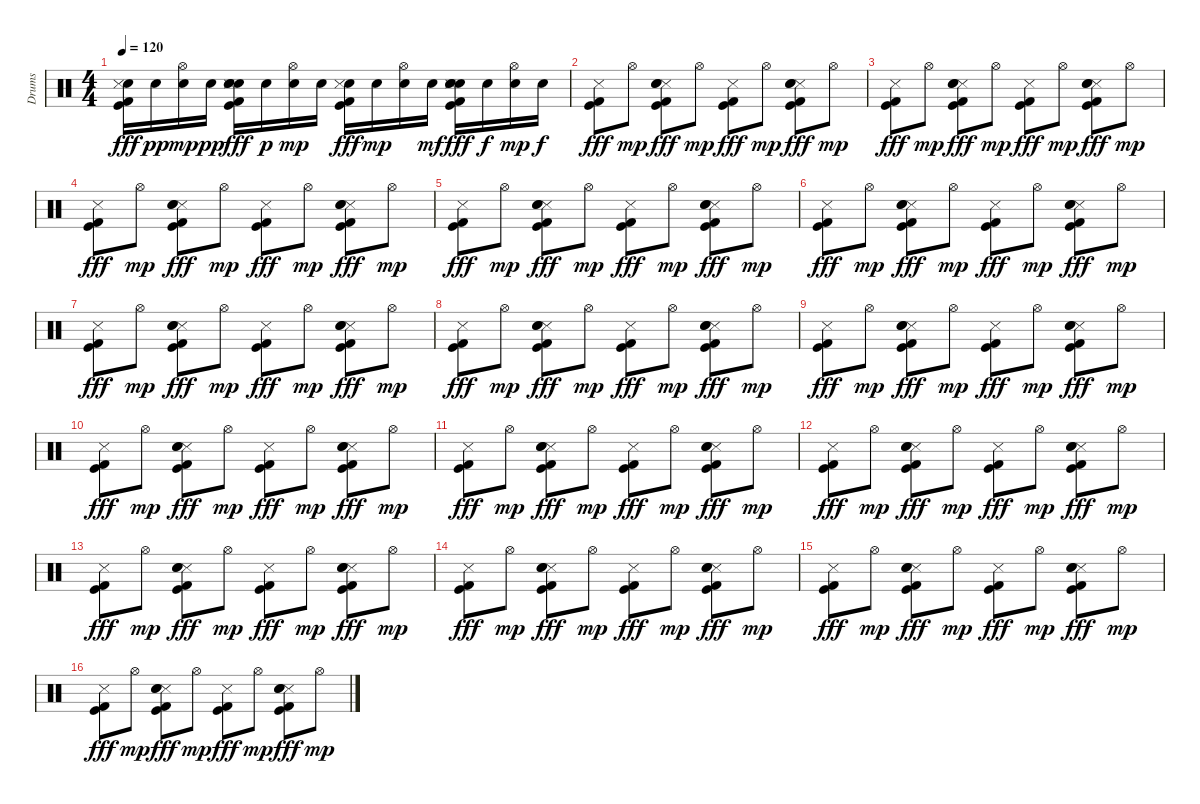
\track ("Drums" "Drums") {instrument percussion}
\staff {score}
\articulation defaults
\ts (4 4)
\tempo 120
\clef neutral
\ks c
("Snare (hit)" "Metronome (hit)" "Kick (hit)" "Kick (hit) 2").16{dy fff} "Snare (hit)".16{dy pp} ("Snare (hit)" "Hi-Hat (open)").16{dy mp} "Snare (hit)".16{dy pp} ("Snare (hit)" "Metronome (hit)" "Kick (hit)" "Kick (hit) 2" "Snare (hit) 2" "Electric Snare (hit)").16{dy fff} "Snare (hit)".16{dy p} ("Snare (hit)" "Hi-Hat (open)").16{dy mp} "Snare (hit)".16 ("Snare (hit)" "Metronome (hit)" "Kick (hit)" "Kick (hit) 2").16{dy fff} "Snare (hit)".16{dy mp} ("Snare (hit)" "Hi-Hat (open)").16 "Snare (hit)".16{dy mf} ("Snare (hit)" "Metronome (hit)" "Kick (hit)" "Kick (hit) 2" "Snare (hit) 2" "Electric Snare (hit)").16{dy fff} "Snare (hit)".16{dy f} ("Snare (hit)" "Hi-Hat (open)").16{dy mp} "Snare (hit)".16{dy f} |
("Metronome (hit)" "Kick (hit)" "Kick (hit) 2").8{dy fff} "Hi-Hat (open)".8{dy mp} ("Metronome (hit)" "Kick (hit)" "Kick (hit) 2" "Snare (hit) 2" "Electric Snare (hit)").8{dy fff} "Hi-Hat (open)".8{dy mp} ("Metronome (hit)" "Kick (hit)" "Kick (hit) 2").8{dy fff} "Hi-Hat (open)".8{dy mp} ("Metronome (hit)" "Kick (hit)" "Kick (hit) 2" "Snare (hit) 2" "Electric Snare (hit)").8{dy fff} "Hi-Hat (open)".8{dy mp} |
("Metronome (hit)" "Kick (hit)" "Kick (hit) 2").8{dy fff} "Hi-Hat (open)".8{dy mp} ("Metronome (hit)" "Kick (hit)" "Kick (hit) 2" "Snare (hit) 2" "Electric Snare (hit)").8{dy fff} "Hi-Hat (open)".8{dy mp} ("Metronome (hit)" "Kick (hit)" "Kick (hit) 2").8{dy fff} "Hi-Hat (open)".8{dy mp} ("Metronome (hit)" "Kick (hit)" "Kick (hit) 2" "Snare (hit) 2" "Electric Snare (hit)").8{dy fff} "Hi-Hat (open)".8{dy mp} |
("Metronome (hit)" "Kick (hit)" "Kick (hit) 2").8{dy fff} "Hi-Hat (open)".8{dy mp} ("Metronome (hit)" "Kick (hit)" "Kick (hit) 2" "Snare (hit) 2" "Electric Snare (hit)").8{dy fff} "Hi-Hat (open)".8{dy mp} ("Metronome (hit)" "Kick (hit)" "Kick (hit) 2").8{dy fff} "Hi-Hat (open)".8{dy mp} ("Metronome (hit)" "Kick (hit)" "Kick (hit) 2" "Snare (hit) 2" "Electric Snare (hit)").8{dy fff} "Hi-Hat (open)".8{dy mp} |
("Metronome (hit)" "Kick (hit)" "Kick (hit) 2").8{dy fff} "Hi-Hat (open)".8{dy mp} ("Metronome (hit)" "Kick (hit)" "Kick (hit) 2" "Snare (hit) 2" "Electric Snare (hit)").8{dy fff} "Hi-Hat (open)".8{dy mp} ("Metronome (hit)" "Kick (hit)" "Kick (hit) 2").8{dy fff} "Hi-Hat (open)".8{dy mp} ("Metronome (hit)" "Kick (hit)" "Kick (hit) 2" "Snare (hit) 2" "Electric Snare (hit)").8{dy fff} "Hi-Hat (open)".8{dy mp} |
("Metronome (hit)" "Kick (hit)" "Kick (hit) 2").8{dy fff} "Hi-Hat (open)".8{dy mp} ("Metronome (hit)" "Kick (hit)" "Kick (hit) 2" "Snare (hit) 2" "Electric Snare (hit)").8{dy fff} "Hi-Hat (open)".8{dy mp} ("Metronome (hit)" "Kick (hit)" "Kick (hit) 2").8{dy fff} "Hi-Hat (open)".8{dy mp} ("Metronome (hit)" "Kick (hit)" "Kick (hit) 2" "Snare (hit) 2" "Electric Snare (hit)").8{dy fff} "Hi-Hat (open)".8{dy mp} |
("Metronome (hit)" "Kick (hit)" "Kick (hit) 2").8{dy fff} "Hi-Hat (open)".8{dy mp} ("Metronome (hit)" "Kick (hit)" "Kick (hit) 2" "Snare (hit) 2" "Electric Snare (hit)").8{dy fff} "Hi-Hat (open)".8{dy mp} ("Metronome (hit)" "Kick (hit)" "Kick (hit) 2").8{dy fff} "Hi-Hat (open)".8{dy mp} ("Metronome (hit)" "Kick (hit)" "Kick (hit) 2" "Snare (hit) 2" "Electric Snare (hit)").8{dy fff} "Hi-Hat (open)".8{dy mp} |
("Metronome (hit)" "Kick (hit)" "Kick (hit) 2").8{dy fff} "Hi-Hat (open)".8{dy mp} ("Metronome (hit)" "Kick (hit)" "Kick (hit) 2" "Snare (hit) 2" "Electric Snare (hit)").8{dy fff} "Hi-Hat (open)".8{dy mp} ("Metronome (hit)" "Kick (hit)" "Kick (hit) 2").8{dy fff} "Hi-Hat (open)".8{dy mp} ("Metronome (hit)" "Kick (hit)" "Kick (hit) 2" "Snare (hit) 2" "Electric Snare (hit)").8{dy fff} "Hi-Hat (open)".8{dy mp} |
("Metronome (hit)" "Kick (hit)" "Kick (hit) 2").8{dy fff} "Hi-Hat (open)".8{dy mp} ("Metronome (hit)" "Kick (hit)" "Kick (hit) 2" "Snare (hit) 2" "Electric Snare (hit)").8{dy fff} "Hi-Hat (open)".8{dy mp} ("Metronome (hit)" "Kick (hit)" "Kick (hit) 2").8{dy fff} "Hi-Hat (open)".8{dy mp} ("Metronome (hit)" "Kick (hit)" "Kick (hit) 2" "Snare (hit) 2" "Electric Snare (hit)").8{dy fff} "Hi-Hat (open)".8{dy mp} |
("Metronome (hit)" "Kick (hit)" "Kick (hit) 2").8{dy fff} "Hi-Hat (open)".8{dy mp} ("Metronome (hit)" "Kick (hit)" "Kick (hit) 2" "Snare (hit) 2" "Electric Snare (hit)").8{dy fff} "Hi-Hat (open)".8{dy mp} ("Metronome (hit)" "Kick (hit)" "Kick (hit) 2").8{dy fff} "Hi-Hat (open)".8{dy mp} ("Metronome (hit)" "Kick (hit)" "Kick (hit) 2" "Snare (hit) 2" "Electric Snare (hit)").8{dy fff} "Hi-Hat (open)".8{dy mp} |
("Metronome (hit)" "Kick (hit)" "Kick (hit) 2").8{dy fff} "Hi-Hat (open)".8{dy mp} ("Metronome (hit)" "Kick (hit)" "Kick (hit) 2" "Snare (hit) 2" "Electric Snare (hit)").8{dy fff} "Hi-Hat (open)".8{dy mp} ("Metronome (hit)" "Kick (hit)" "Kick (hit) 2").8{dy fff} "Hi-Hat (open)".8{dy mp} ("Metronome (hit)" "Kick (hit)" "Kick (hit) 2" "Snare (hit) 2" "Electric Snare (hit)").8{dy fff} "Hi-Hat (open)".8{dy mp} |
("Metronome (hit)" "Kick (hit)" "Kick (hit) 2").8{dy fff} "Hi-Hat (open)".8{dy mp} ("Metronome (hit)" "Kick (hit)" "Kick (hit) 2" "Snare (hit) 2" "Electric Snare (hit)").8{dy fff} "Hi-Hat (open)".8{dy mp} ("Metronome (hit)" "Kick (hit)" "Kick (hit) 2").8{dy fff} "Hi-Hat (open)".8{dy mp} ("Metronome (hit)" "Kick (hit)" "Kick (hit) 2" "Snare (hit) 2" "Electric Snare (hit)").8{dy fff} "Hi-Hat (open)".8{dy mp} |
("Metronome (hit)" "Kick (hit)" "Kick (hit) 2").8{dy fff} "Hi-Hat (open)".8{dy mp} ("Metronome (hit)" "Kick (hit)" "Kick (hit) 2" "Snare (hit) 2" "Electric Snare (hit)").8{dy fff} "Hi-Hat (open)".8{dy mp} ("Metronome (hit)" "Kick (hit)" "Kick (hit) 2").8{dy fff} "Hi-Hat (open)".8{dy mp} ("Metronome (hit)" "Kick (hit)" "Kick (hit) 2" "Snare (hit) 2" "Electric Snare (hit)").8{dy fff} "Hi-Hat (open)".8{dy mp} |
("Metronome (hit)" "Kick (hit)" "Kick (hit) 2").8{dy fff} "Hi-Hat (open)".8{dy mp} ("Metronome (hit)" "Kick (hit)" "Kick (hit) 2" "Snare (hit) 2" "Electric Snare (hit)").8{dy fff} "Hi-Hat (open)".8{dy mp} ("Metronome (hit)" "Kick (hit)" "Kick (hit) 2").8{dy fff} "Hi-Hat (open)".8{dy mp} ("Metronome (hit)" "Kick (hit)" "Kick (hit) 2" "Snare (hit) 2" "Electric Snare (hit)").8{dy fff} "Hi-Hat (open)".8{dy mp} |
("Metronome (hit)" "Kick (hit)" "Kick (hit) 2").8{dy fff} "Hi-Hat (open)".8{dy mp} ("Metronome (hit)" "Kick (hit)" "Kick (hit) 2" "Snare (hit) 2" "Electric Snare (hit)").8{dy fff} "Hi-Hat (open)".8{dy mp} ("Metronome (hit)" "Kick (hit)" "Kick (hit) 2").8{dy fff} "Hi-Hat (open)".8{dy mp} ("Metronome (hit)" "Kick (hit)" "Kick (hit) 2" "Snare (hit) 2" "Electric Snare (hit)").8{dy fff} "Hi-Hat (open)".8{dy mp} |
("Metronome (hit)" "Kick (hit)" "Kick (hit) 2").8{dy fff} "Hi-Hat (open)".8{dy mp} ("Metronome (hit)" "Kick (hit)" "Kick (hit) 2" "Snare (hit) 2" "Electric Snare (hit)").8{dy fff} "Hi-Hat (open)".8{dy mp} ("Metronome (hit)" "Kick (hit)" "Kick (hit) 2").8{dy fff} "Hi-Hat (open)".8{dy mp} ("Metronome (hit)" "Kick (hit)" "Kick (hit) 2" "Snare (hit) 2" "Electric Snare (hit)").8{dy fff} "Hi-Hat (open)".8{dy mp}
